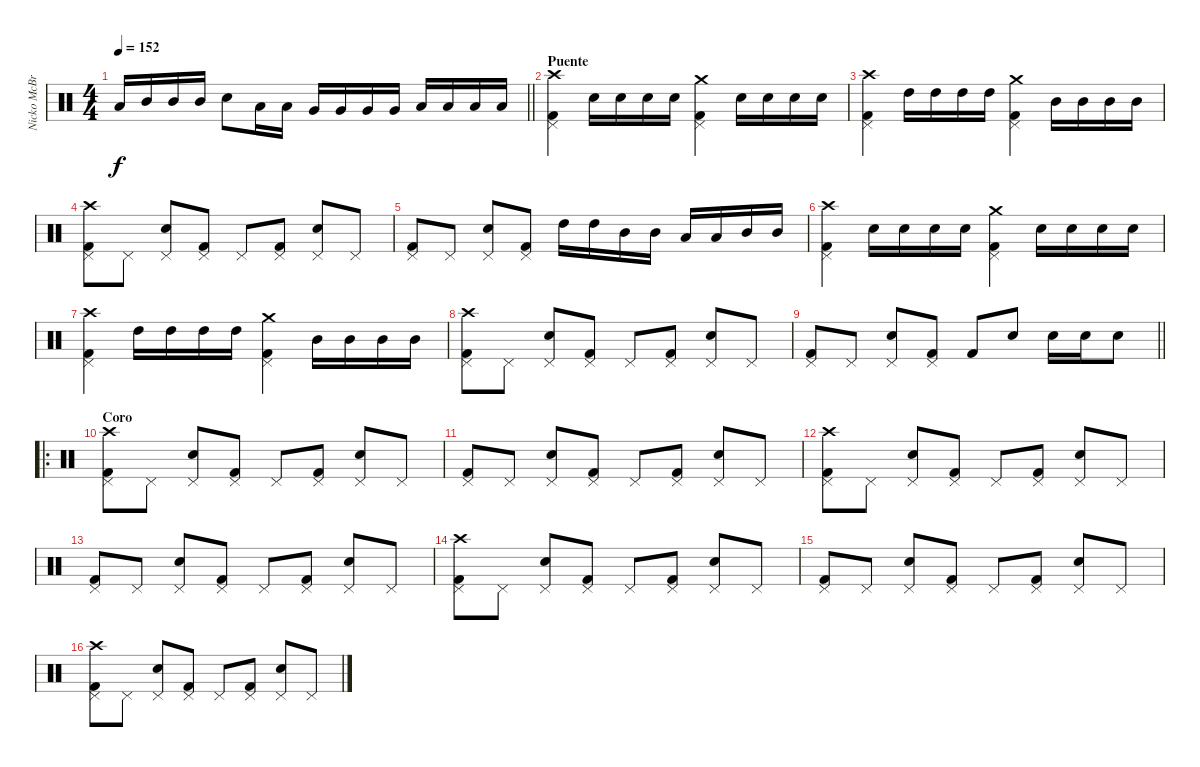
\track ("Nicko McBrain" "Nicko McBr") {instrument percussion}
\staff {score}
\articulation defaults
\ts (4 4)
\tempo 152
\clef neutral
\barLineRight lightlight
\ks c "Low Tom (hit)".16{dy f} "Mid Tom (hit)".16 "Mid Tom (hit)".16 "Mid Tom (hit)".16 "Snare (hit) 2".8 "Low Tom (hit)".16 "Low Tom (hit)".16 "Very Low Tom (hit)".16 "Very Low Tom (hit)".16 "Very Low Tom (hit)".16 "Very Low Tom (hit)".16 "Low Floor Tom (hit)".16 "Low Floor Tom (hit)".16 "Low Floor Tom (hit)".16 "Low Floor Tom (hit)".16
|
\section ("" "Puente")
("Kick (hit) 2" "Pedal Hi-Hat (hit)" "Crash high (hit)").4 "Snare (hit) 2".16 "Snare (hit) 2".16 "Snare (hit) 2".16 "Snare (hit) 2".16 ("Kick (hit) 2" "Pedal Hi-Hat (hit)" "Crash medium (hit)").4 "Snare (hit) 2".16 "Snare (hit) 2".16 "Snare (hit) 2".16 "Snare (hit) 2".16 |
("Kick (hit) 2" "Pedal Hi-Hat (hit)" "Crash high (hit)").4 "High Tom (hit)".16 "High Tom (hit)".16 "High Tom (hit)".16 "High Tom (hit)".16 ("Kick (hit) 2" "Pedal Hi-Hat (hit)" "Crash medium (hit)").4 "Mid Tom (hit)".16 "Mid Tom (hit)".16 "Mid Tom (hit)".16 "Mid Tom (hit)".16 |
("Kick (hit) 2" "Pedal Hi-Hat (hit)" "Crash high (hit)").8 "Pedal Hi-Hat (hit)".8 ("Snare (hit) 2" "Pedal Hi-Hat (hit)").8 ("Kick (hit) 2" "Pedal Hi-Hat (hit)").8 "Pedal Hi-Hat (hit)".8 ("Kick (hit) 2" "Pedal Hi-Hat (hit)").8 ("Snare (hit) 2" "Pedal Hi-Hat (hit)").8 "Pedal Hi-Hat (hit)".8 |
("Kick (hit) 2" "Pedal Hi-Hat (hit)").8 "Pedal Hi-Hat (hit)".8 ("Snare (hit) 2" "Pedal Hi-Hat (hit)").8 ("Kick (hit) 2" "Pedal Hi-Hat (hit)").8 "High Tom (hit)".16 "High Tom (hit)".16 "Mid Tom (hit)".16 "Mid Tom (hit)".16 "Low Tom (hit)".16 "Low Tom (hit)".16 "Mid Tom (hit)".16 "Mid Tom (hit)".16 |
("Kick (hit) 2" "Pedal Hi-Hat (hit)" "Crash high (hit)").4 "Snare (hit) 2".16 "Snare (hit) 2".16 "Snare (hit) 2".16 "Snare (hit) 2".16 ("Kick (hit) 2" "Pedal Hi-Hat (hit)" "Crash medium (hit)").4 "Snare (hit) 2".16 "Snare (hit) 2".16 "Snare (hit) 2".16 "Snare (hit) 2".16 |
("Kick (hit) 2" "Pedal Hi-Hat (hit)" "Crash high (hit)").4 "High Tom (hit)".16 "High Tom (hit)".16 "High Tom (hit)".16 "High Tom (hit)".16 ("Kick (hit) 2" "Pedal Hi-Hat (hit)" "Crash medium (hit)").4 "Mid Tom (hit)".16 "Mid Tom (hit)".16 "Mid Tom (hit)".16 "Mid Tom (hit)".16 |
("Kick (hit) 2" "Pedal Hi-Hat (hit)" "Crash high (hit)").8 "Pedal Hi-Hat (hit)".8 ("Snare (hit) 2" "Pedal Hi-Hat (hit)").8 ("Kick (hit) 2" "Pedal Hi-Hat (hit)").8 "Pedal Hi-Hat (hit)".8 ("Kick (hit) 2" "Pedal Hi-Hat (hit)").8 ("Snare (hit) 2" "Pedal Hi-Hat (hit)").8 "Pedal Hi-Hat (hit)".8 |
\barLineRight lightlight
("Kick (hit) 2" "Pedal Hi-Hat (hit)").8 "Pedal Hi-Hat (hit)".8 ("Snare (hit) 2" "Pedal Hi-Hat (hit)").8 ("Kick (hit) 2" "Pedal Hi-Hat (hit)").8 "Kick (hit) 2".8 "Snare (hit) 2".8 "Snare (hit) 2".16 "Snare (hit) 2".16 "Snare (hit) 2".8 |
\ro
\section ("" "Coro")
("Kick (hit) 2" "Pedal Hi-Hat (hit)" "Crash high (hit)").8 "Pedal Hi-Hat (hit)".8 ("Snare (hit) 2" "Pedal Hi-Hat (hit)").8 ("Kick (hit) 2" "Pedal Hi-Hat (hit)").8 "Pedal Hi-Hat (hit)".8 ("Kick (hit) 2" "Pedal Hi-Hat (hit)").8 ("Snare (hit) 2" "Pedal Hi-Hat (hit)").8 "Pedal Hi-Hat (hit)".8 |
("Kick (hit) 2" "Pedal Hi-Hat (hit)").8 "Pedal Hi-Hat (hit)".8 ("Snare (hit) 2" "Pedal Hi-Hat (hit)").8 ("Kick (hit) 2" "Pedal Hi-Hat (hit)").8 "Pedal Hi-Hat (hit)".8 ("Kick (hit) 2" "Pedal Hi-Hat (hit)").8 ("Snare (hit) 2" "Pedal Hi-Hat (hit)").8 "Pedal Hi-Hat (hit)".8 |
("Kick (hit) 2" "Pedal Hi-Hat (hit)" "Crash high (hit)").8 "Pedal Hi-Hat (hit)".8 ("Snare (hit) 2" "Pedal Hi-Hat (hit)").8 ("Kick (hit) 2" "Pedal Hi-Hat (hit)").8 "Pedal Hi-Hat (hit)".8 ("Kick (hit) 2" "Pedal Hi-Hat (hit)").8 ("Snare (hit) 2" "Pedal Hi-Hat (hit)").8 "Pedal Hi-Hat (hit)".8 |
("Kick (hit) 2" "Pedal Hi-Hat (hit)").8 "Pedal Hi-Hat (hit)".8 ("Snare (hit) 2" "Pedal Hi-Hat (hit)").8 ("Kick (hit) 2" "Pedal Hi-Hat (hit)").8 "Pedal Hi-Hat (hit)".8 ("Kick (hit) 2" "Pedal Hi-Hat (hit)").8 ("Snare (hit) 2" "Pedal Hi-Hat (hit)").8 "Pedal Hi-Hat (hit)".8 |
("Kick (hit) 2" "Pedal Hi-Hat (hit)" "Crash high (hit)").8 "Pedal Hi-Hat (hit)".8 ("Snare (hit) 2" "Pedal Hi-Hat (hit)").8 ("Kick (hit) 2" "Pedal Hi-Hat (hit)").8 "Pedal Hi-Hat (hit)".8 ("Kick (hit) 2" "Pedal Hi-Hat (hit)").8 ("Snare (hit) 2" "Pedal Hi-Hat (hit)").8 "Pedal Hi-Hat (hit)".8 |
("Kick (hit) 2" "Pedal Hi-Hat (hit)").8 "Pedal Hi-Hat (hit)".8 ("Snare (hit) 2" "Pedal Hi-Hat (hit)").8 ("Kick (hit) 2" "Pedal Hi-Hat (hit)").8 "Pedal Hi-Hat (hit)".8 ("Kick (hit) 2" "Pedal Hi-Hat (hit)").8 ("Snare (hit) 2" "Pedal Hi-Hat (hit)").8 "Pedal Hi-Hat (hit)".8 |
("Kick (hit) 2" "Pedal Hi-Hat (hit)" "Crash high (hit)").8 "Pedal Hi-Hat (hit)".8 ("Snare (hit) 2" "Pedal Hi-Hat (hit)").8 ("Kick (hit) 2" "Pedal Hi-Hat (hit)").8 "Pedal Hi-Hat (hit)".8 ("Kick (hit) 2" "Pedal Hi-Hat (hit)").8 ("Snare (hit) 2" "Pedal Hi-Hat (hit)").8 "Pedal Hi-Hat (hit)".8
